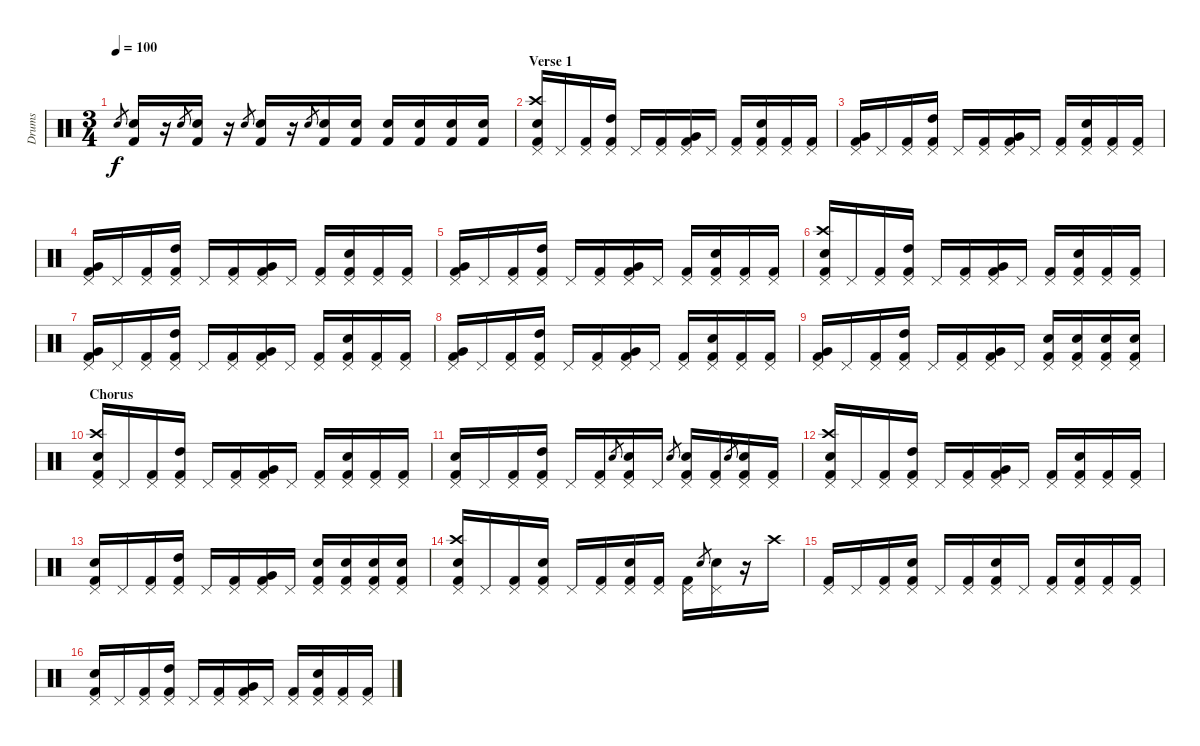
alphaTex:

\track ("Drums" "Drums") {instrument percussion}
\staff {score}
\articulation defaults
\ts (3 4)
\tempo 100
\clef neutral
\ks c "Snare (hit) 2".8{gr dy f}
("Snare (hit) 2" "Kick (hit) 2").16 r.16 "Snare (hit) 2".8{gr} ("Snare (hit) 2" "Kick (hit) 2").16 r.16 "Snare (hit) 2".8{gr} ("Snare (hit) 2" "Kick (hit) 2").16 r.16 "Snare (hit) 2".8{gr} ("Snare (hit) 2" "Kick (hit) 2").16 ("Snare (hit) 2" "Kick (hit) 2").16 ("Snare (hit) 2" "Kick (hit) 2").16 ("Snare (hit) 2" "Kick (hit) 2").16 ("Snare (hit) 2" "Kick (hit) 2").16 ("Snare (hit) 2" "Kick (hit) 2").16 |
\section ("" "Verse 1")
("Crash high (hit)" "Snare (hit) 2" "Pedal Hi-Hat (hit)" "Kick (hit) 2").16 "Pedal Hi-Hat (hit)".16 ("Pedal Hi-Hat (hit)" "Kick (hit) 2").16 ("High Tom (hit)" "Pedal Hi-Hat (hit)" "Kick (hit) 2").16 "Pedal Hi-Hat (hit)".16 ("Pedal Hi-Hat (hit)" "Kick (hit) 2").16 ("Very Low Tom (hit)" "Pedal Hi-Hat (hit)" "Kick (hit) 2").16 "Pedal Hi-Hat (hit)".16 ("Pedal Hi-Hat (hit)" "Kick (hit) 2").16 ("Snare (hit) 2" "Pedal Hi-Hat (hit)" "Kick (hit) 2").16 ("Pedal Hi-Hat (hit)" "Kick (hit) 2").16 ("Pedal Hi-Hat (hit)" "Kick (hit) 2").16 |
("Very Low Tom (hit)" "Pedal Hi-Hat (hit)" "Kick (hit) 2").16 "Pedal Hi-Hat (hit)".16 ("Pedal Hi-Hat (hit)" "Kick (hit) 2").16 ("High Tom (hit)" "Pedal Hi-Hat (hit)" "Kick (hit) 2").16 "Pedal Hi-Hat (hit)".16 ("Pedal Hi-Hat (hit)" "Kick (hit) 2").16 ("Very Low Tom (hit)" "Pedal Hi-Hat (hit)" "Kick (hit) 2").16 "Pedal Hi-Hat (hit)".16 ("Pedal Hi-Hat (hit)" "Kick (hit) 2").16 ("Snare (hit) 2" "Pedal Hi-Hat (hit)" "Kick (hit) 2").16 ("Pedal Hi-Hat (hit)" "Kick (hit) 2").16 ("Pedal Hi-Hat (hit)" "Kick (hit) 2").16 |
("Very Low Tom (hit)" "Pedal Hi-Hat (hit)" "Kick (hit) 2").16 "Pedal Hi-Hat (hit)".16 ("Pedal Hi-Hat (hit)" "Kick (hit) 2").16 ("High Tom (hit)" "Pedal Hi-Hat (hit)" "Kick (hit) 2").16 "Pedal Hi-Hat (hit)".16 ("Pedal Hi-Hat (hit)" "Kick (hit) 2").16 ("Very Low Tom (hit)" "Pedal Hi-Hat (hit)" "Kick (hit) 2").16 "Pedal Hi-Hat (hit)".16 ("Pedal Hi-Hat (hit)" "Kick (hit) 2").16 ("Snare (hit) 2" "Pedal Hi-Hat (hit)" "Kick (hit) 2").16 ("Pedal Hi-Hat (hit)" "Kick (hit) 2").16 ("Pedal Hi-Hat (hit)" "Kick (hit) 2").16 |
("Very Low Tom (hit)" "Pedal Hi-Hat (hit)" "Kick (hit) 2").16 "Pedal Hi-Hat (hit)".16 ("Pedal Hi-Hat (hit)" "Kick (hit) 2").16 ("High Tom (hit)" "Pedal Hi-Hat (hit)" "Kick (hit) 2").16 "Pedal Hi-Hat (hit)".16 ("Pedal Hi-Hat (hit)" "Kick (hit) 2").16 ("Very Low Tom (hit)" "Pedal Hi-Hat (hit)" "Kick (hit) 2").16 "Pedal Hi-Hat (hit)".16 ("Pedal Hi-Hat (hit)" "Kick (hit) 2").16 ("Snare (hit) 2" "Pedal Hi-Hat (hit)" "Kick (hit) 2").16 ("Pedal Hi-Hat (hit)" "Kick (hit) 2").16 ("Pedal Hi-Hat (hit)" "Kick (hit) 2").16 |
("Crash high (hit)" "Snare (hit) 2" "Pedal Hi-Hat (hit)" "Kick (hit) 2").16 "Pedal Hi-Hat (hit)".16 ("Pedal Hi-Hat (hit)" "Kick (hit) 2").16 ("High Tom (hit)" "Pedal Hi-Hat (hit)" "Kick (hit) 2").16 "Pedal Hi-Hat (hit)".16 ("Pedal Hi-Hat (hit)" "Kick (hit) 2").16 ("Very Low Tom (hit)" "Pedal Hi-Hat (hit)" "Kick (hit) 2").16 "Pedal Hi-Hat (hit)".16 ("Pedal Hi-Hat (hit)" "Kick (hit) 2").16 ("Snare (hit) 2" "Pedal Hi-Hat (hit)" "Kick (hit) 2").16 ("Pedal Hi-Hat (hit)" "Kick (hit) 2").16 ("Pedal Hi-Hat (hit)" "Kick (hit) 2").16 |
("Very Low Tom (hit)" "Pedal Hi-Hat (hit)" "Kick (hit) 2").16 "Pedal Hi-Hat (hit)".16 ("Pedal Hi-Hat (hit)" "Kick (hit) 2").16 ("High Tom (hit)" "Pedal Hi-Hat (hit)" "Kick (hit) 2").16 "Pedal Hi-Hat (hit)".16 ("Pedal Hi-Hat (hit)" "Kick (hit) 2").16 ("Very Low Tom (hit)" "Pedal Hi-Hat (hit)" "Kick (hit) 2").16 "Pedal Hi-Hat (hit)".16 ("Pedal Hi-Hat (hit)" "Kick (hit) 2").16 ("Snare (hit) 2" "Pedal Hi-Hat (hit)" "Kick (hit) 2").16 ("Pedal Hi-Hat (hit)" "Kick (hit) 2").16 ("Pedal Hi-Hat (hit)" "Kick (hit) 2").16 |
("Very Low Tom (hit)" "Pedal Hi-Hat (hit)" "Kick (hit) 2").16 "Pedal Hi-Hat (hit)".16 ("Pedal Hi-Hat (hit)" "Kick (hit) 2").16 ("High Tom (hit)" "Pedal Hi-Hat (hit)" "Kick (hit) 2").16 "Pedal Hi-Hat (hit)".16 ("Pedal Hi-Hat (hit)" "Kick (hit) 2").16 ("Very Low Tom (hit)" "Pedal Hi-Hat (hit)" "Kick (hit) 2").16 "Pedal Hi-Hat (hit)".16 ("Pedal Hi-Hat (hit)" "Kick (hit) 2").16 ("Snare (hit) 2" "Pedal Hi-Hat (hit)" "Kick (hit) 2").16 ("Pedal Hi-Hat (hit)" "Kick (hit) 2").16 ("Pedal Hi-Hat (hit)" "Kick (hit) 2").16 |
("Very Low Tom (hit)" "Pedal Hi-Hat (hit)" "Kick (hit) 2").16 "Pedal Hi-Hat (hit)".16 ("Pedal Hi-Hat (hit)" "Kick (hit) 2").16 ("High Tom (hit)" "Pedal Hi-Hat (hit)" "Kick (hit) 2").16 "Pedal Hi-Hat (hit)".16 ("Pedal Hi-Hat (hit)" "Kick (hit) 2").16 ("Very Low Tom (hit)" "Pedal Hi-Hat (hit)" "Kick (hit) 2").16 "Pedal Hi-Hat (hit)".16 ("Snare (hit) 2" "Pedal Hi-Hat (hit)" "Kick (hit) 2").16 ("Snare (hit) 2" "Pedal Hi-Hat (hit)" "Kick (hit) 2").16 ("Snare (hit) 2" "Pedal Hi-Hat (hit)" "Kick (hit) 2").16 ("Snare (hit) 2" "Pedal Hi-Hat (hit)" "Kick (hit) 2").16 |
\section ("" "Chorus")
("Crash high (hit)" "Snare (hit) 2" "Pedal Hi-Hat (hit)" "Kick (hit) 2").16 "Pedal Hi-Hat (hit)".16 ("Pedal Hi-Hat (hit)" "Kick (hit) 2").16 ("High Tom (hit)" "Pedal Hi-Hat (hit)" "Kick (hit) 2").16 "Pedal Hi-Hat (hit)".16 ("Pedal Hi-Hat (hit)" "Kick (hit) 2").16 ("Very Low Tom (hit)" "Pedal Hi-Hat (hit)" "Kick (hit) 2").16 "Pedal Hi-Hat (hit)".16 ("Pedal Hi-Hat (hit)" "Kick (hit) 2").16 ("Snare (hit) 2" "Pedal Hi-Hat (hit)" "Kick (hit) 2").16 ("Pedal Hi-Hat (hit)" "Kick (hit) 2").16 ("Pedal Hi-Hat (hit)" "Kick (hit) 2").16 |
("Snare (hit) 2" "Pedal Hi-Hat (hit)" "Kick (hit) 2").16 "Pedal Hi-Hat (hit)".16 ("Pedal Hi-Hat (hit)" "Kick (hit) 2").16 ("High Tom (hit)" "Pedal Hi-Hat (hit)" "Kick (hit) 2").16 "Pedal Hi-Hat (hit)".16 ("Pedal Hi-Hat (hit)" "Kick (hit) 2").16 "Snare (hit) 2".8{gr} ("Snare (hit) 2" "Pedal Hi-Hat (hit)" "Kick (hit) 2").16 "Pedal Hi-Hat (hit)".16 "Snare (hit) 2".8{gr} ("Snare (hit) 2" "Pedal Hi-Hat (hit)" "Kick (hit) 2").16 ("Pedal Hi-Hat (hit)" "Kick (hit) 2").16 "Snare (hit) 2".8{gr} ("Snare (hit) 2" "Pedal Hi-Hat (hit)" "Kick (hit) 2").16 ("Pedal Hi-Hat (hit)" "Kick (hit) 2").16 |
("Crash high (hit)" "Snare (hit) 2" "Pedal Hi-Hat (hit)" "Kick (hit) 2").16 "Pedal Hi-Hat (hit)".16 ("Pedal Hi-Hat (hit)" "Kick (hit) 2").16 ("High Tom (hit)" "Pedal Hi-Hat (hit)" "Kick (hit) 2").16 "Pedal Hi-Hat (hit)".16 ("Pedal Hi-Hat (hit)" "Kick (hit) 2").16 ("Very Low Tom (hit)" "Pedal Hi-Hat (hit)" "Kick (hit) 2").16 "Pedal Hi-Hat (hit)".16 ("Pedal Hi-Hat (hit)" "Kick (hit) 2").16 ("Snare (hit) 2" "Pedal Hi-Hat (hit)" "Kick (hit) 2").16 ("Pedal Hi-Hat (hit)" "Kick (hit) 2").16 ("Pedal Hi-Hat (hit)" "Kick (hit) 2").16 |
("Snare (hit) 2" "Pedal Hi-Hat (hit)" "Kick (hit) 2").16 "Pedal Hi-Hat (hit)".16 ("Pedal Hi-Hat (hit)" "Kick (hit) 2").16 ("High Tom (hit)" "Pedal Hi-Hat (hit)" "Kick (hit) 2").16 "Pedal Hi-Hat (hit)".16 ("Pedal Hi-Hat (hit)" "Kick (hit) 2").16 ("Very Low Tom (hit)" "Pedal Hi-Hat (hit)" "Kick (hit) 2").16 "Pedal Hi-Hat (hit)".16 ("Snare (hit) 2" "Pedal Hi-Hat (hit)" "Kick (hit) 2").16 ("Snare (hit) 2" "Pedal Hi-Hat (hit)" "Kick (hit) 2").16 ("Snare (hit) 2" "Pedal Hi-Hat (hit)" "Kick (hit) 2").16 ("Snare (hit) 2" "Pedal Hi-Hat (hit)" "Kick (hit) 2").16 |
("Crash high (hit)" "Snare (hit) 2" "Pedal Hi-Hat (hit)" "Kick (hit) 2").16 "Pedal Hi-Hat (hit)".16 ("Pedal Hi-Hat (hit)" "Kick (hit) 2").16 ("Snare (hit) 2" "Pedal Hi-Hat (hit)" "Kick (hit) 2").16 "Pedal Hi-Hat (hit)".16 ("Pedal Hi-Hat (hit)" "Kick (hit) 2").16 ("Snare (hit) 2" "Pedal Hi-Hat (hit)" "Kick (hit) 2").16 ("Pedal Hi-Hat (hit)" "Kick (hit) 2").16 ("Pedal Hi-Hat (hit)" "Kick (hit) 2").16 "Electric Snare (hit)".8{gr} ("Electric Snare (hit)" "Pedal Hi-Hat (hit)").16 r.16 "Crash high (hit)".16 |
("Pedal Hi-Hat (hit)" "Kick (hit) 2").16 "Pedal Hi-Hat (hit)".16 ("Pedal Hi-Hat (hit)" "Kick (hit) 2").16 ("Snare (hit) 2" "Pedal Hi-Hat (hit)" "Kick (hit) 2").16 "Pedal Hi-Hat (hit)".16 ("Pedal Hi-Hat (hit)" "Kick (hit) 2").16 ("Snare (hit) 2" "Pedal Hi-Hat (hit)" "Kick (hit) 2").16 "Pedal Hi-Hat (hit)".16 ("Pedal Hi-Hat (hit)" "Kick (hit) 2").16 ("Snare (hit) 2" "Pedal Hi-Hat (hit)" "Kick (hit) 2").16 ("Pedal Hi-Hat (hit)" "Kick (hit) 2").16 ("Pedal Hi-Hat (hit)" "Kick (hit) 2").16 |
("Snare (hit) 2" "Pedal Hi-Hat (hit)" "Kick (hit) 2").16 "Pedal Hi-Hat (hit)".16 ("Pedal Hi-Hat (hit)" "Kick (hit) 2").16 ("High Tom (hit)" "Pedal Hi-Hat (hit)" "Kick (hit) 2").16 "Pedal Hi-Hat (hit)".16 ("Pedal Hi-Hat (hit)" "Kick (hit) 2").16 ("Very Low Tom (hit)" "Pedal Hi-Hat (hit)" "Kick (hit) 2").16 "Pedal Hi-Hat (hit)".16 ("Pedal Hi-Hat (hit)" "Kick (hit) 2").16 ("Snare (hit) 2" "Pedal Hi-Hat (hit)" "Kick (hit) 2").16 ("Pedal Hi-Hat (hit)" "Kick (hit) 2").16 ("Pedal Hi-Hat (hit)" "Kick (hit) 2").16
